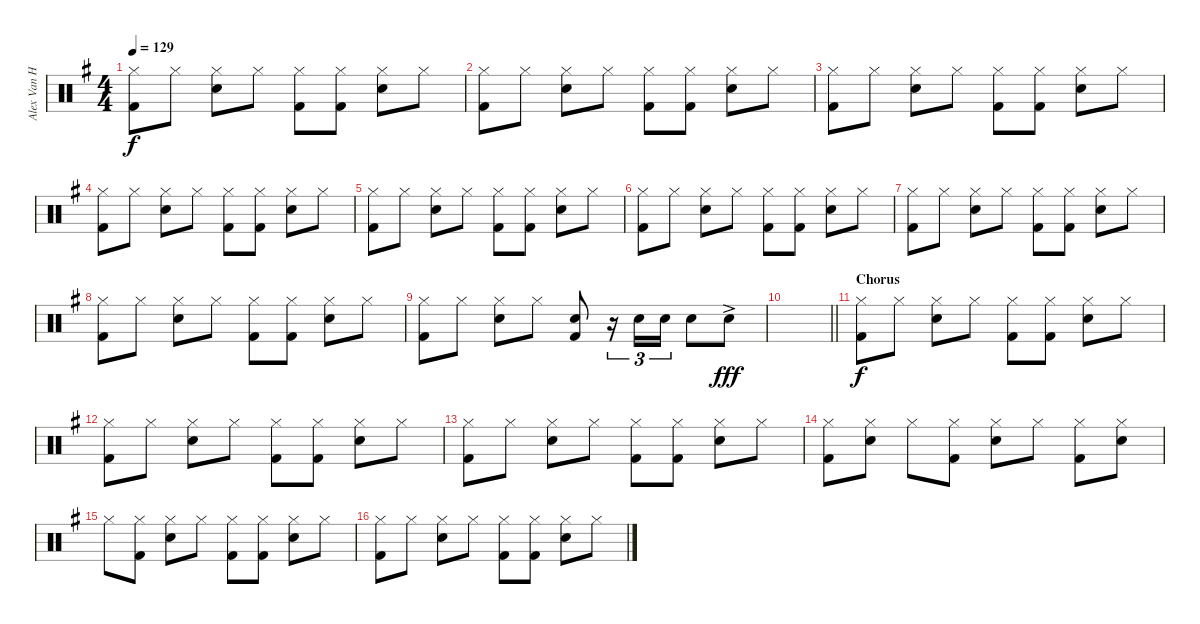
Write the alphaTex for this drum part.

\track ("Alex Van Halen" "Alex Van H") {instrument percussion}
\staff {score}
\articulation defaults
\ts (4 4)
\tempo 129
\clef neutral
\ks eminor
("Hi-Hat (closed)" "Kick (hit) 2").8{dy f} "Hi-Hat (closed)".8 ("Hi-Hat (closed)" "Snare (hit) 2").8 "Hi-Hat (closed)".8 ("Hi-Hat (closed)" "Kick (hit) 2").8 ("Hi-Hat (closed)" "Kick (hit) 2").8 ("Hi-Hat (closed)" "Snare (hit) 2").8 "Hi-Hat (closed)".8 |
("Hi-Hat (closed)" "Kick (hit) 2").8 "Hi-Hat (closed)".8 ("Hi-Hat (closed)" "Snare (hit) 2").8 "Hi-Hat (closed)".8 ("Hi-Hat (closed)" "Kick (hit) 2").8 ("Hi-Hat (closed)" "Kick (hit) 2").8 ("Hi-Hat (closed)" "Snare (hit) 2").8 "Hi-Hat (closed)".8 |
("Hi-Hat (closed)" "Kick (hit) 2").8 "Hi-Hat (closed)".8 ("Hi-Hat (closed)" "Snare (hit) 2").8 "Hi-Hat (closed)".8 ("Hi-Hat (closed)" "Kick (hit) 2").8 ("Hi-Hat (closed)" "Kick (hit) 2").8 ("Hi-Hat (closed)" "Snare (hit) 2").8 "Hi-Hat (closed)".8 |
("Hi-Hat (closed)" "Kick (hit) 2").8 "Hi-Hat (closed)".8 ("Hi-Hat (closed)" "Snare (hit) 2").8 "Hi-Hat (closed)".8 ("Hi-Hat (closed)" "Kick (hit) 2").8 ("Hi-Hat (closed)" "Kick (hit) 2").8 ("Hi-Hat (closed)" "Snare (hit) 2").8 "Hi-Hat (closed)".8 |
("Hi-Hat (closed)" "Kick (hit) 2").8 "Hi-Hat (closed)".8 ("Hi-Hat (closed)" "Snare (hit) 2").8 "Hi-Hat (closed)".8 ("Hi-Hat (closed)" "Kick (hit) 2").8 ("Hi-Hat (closed)" "Kick (hit) 2").8 ("Hi-Hat (closed)" "Snare (hit) 2").8 "Hi-Hat (closed)".8 |
("Hi-Hat (closed)" "Kick (hit) 2").8 "Hi-Hat (closed)".8 ("Hi-Hat (closed)" "Snare (hit) 2").8 "Hi-Hat (closed)".8 ("Hi-Hat (closed)" "Kick (hit) 2").8 ("Hi-Hat (closed)" "Kick (hit) 2").8 ("Hi-Hat (closed)" "Snare (hit) 2").8 "Hi-Hat (closed)".8 |
("Hi-Hat (closed)" "Kick (hit) 2").8 "Hi-Hat (closed)".8 ("Hi-Hat (closed)" "Snare (hit) 2").8 "Hi-Hat (closed)".8 ("Hi-Hat (closed)" "Kick (hit) 2").8 ("Hi-Hat (closed)" "Kick (hit) 2").8 ("Hi-Hat (closed)" "Snare (hit) 2").8 "Hi-Hat (closed)".8 |
("Hi-Hat (closed)" "Kick (hit) 2").8 "Hi-Hat (closed)".8 ("Hi-Hat (closed)" "Snare (hit) 2").8 "Hi-Hat (closed)".8 ("Hi-Hat (closed)" "Kick (hit) 2").8 ("Hi-Hat (closed)" "Kick (hit) 2").8 ("Hi-Hat (closed)" "Snare (hit) 2").8 "Hi-Hat (closed)".8 |
("Hi-Hat (closed)" "Kick (hit) 2").8 "Hi-Hat (closed)".8 ("Hi-Hat (closed)" "Snare (hit) 2").8 "Hi-Hat (closed)".8 ("Snare (hit) 2" "Kick (hit) 2").8 r.16{tu (3 2)} "Electric Snare (hit)".16{tu (3 2)} "Electric Snare (hit)".16{tu (3 2)} "Electric Snare (hit)".8 "Snare (hit) 2"{ac}.8{dy fff} |
\barLineRight lightlight
|
\section ("" "Chorus")
("Hi-Hat (closed)" "Kick (hit) 2").8{dy f} "Hi-Hat (closed)".8 ("Hi-Hat (closed)" "Snare (hit) 2").8 "Hi-Hat (closed)".8 ("Hi-Hat (closed)" "Kick (hit) 2").8 ("Hi-Hat (closed)" "Kick (hit) 2").8 ("Hi-Hat (closed)" "Snare (hit) 2").8 "Hi-Hat (closed)".8 |
("Hi-Hat (closed)" "Kick (hit) 2").8 "Hi-Hat (closed)".8 ("Hi-Hat (closed)" "Snare (hit) 2").8 "Hi-Hat (closed)".8 ("Hi-Hat (closed)" "Kick (hit) 2").8 ("Hi-Hat (closed)" "Kick (hit) 2").8 ("Hi-Hat (closed)" "Snare (hit) 2").8 "Hi-Hat (closed)".8 |
("Hi-Hat (closed)" "Kick (hit) 2").8 "Hi-Hat (closed)".8 ("Hi-Hat (closed)" "Snare (hit) 2").8 "Hi-Hat (closed)".8 ("Hi-Hat (closed)" "Kick (hit) 2").8 ("Hi-Hat (closed)" "Kick (hit) 2").8 ("Hi-Hat (closed)" "Snare (hit) 2").8 "Hi-Hat (closed)".8 |
("Hi-Hat (closed)" "Kick (hit) 2").8 ("Hi-Hat (closed)" "Snare (hit) 2").8 "Hi-Hat (closed)".8 ("Hi-Hat (closed)" "Kick (hit) 2").8 ("Hi-Hat (closed)" "Snare (hit) 2").8 "Hi-Hat (closed)".8 ("Hi-Hat (closed)" "Kick (hit) 2").8 ("Hi-Hat (closed)" "Snare (hit) 2").8 |
"Hi-Hat (closed)".8 ("Hi-Hat (closed)" "Kick (hit) 2").8 ("Hi-Hat (closed)" "Snare (hit) 2").8 "Hi-Hat (closed)".8 ("Hi-Hat (closed)" "Kick (hit) 2").8 ("Hi-Hat (closed)" "Kick (hit) 2").8 ("Hi-Hat (closed)" "Snare (hit) 2").8 "Hi-Hat (closed)".8 |
("Hi-Hat (closed)" "Kick (hit) 2").8 "Hi-Hat (closed)".8 ("Hi-Hat (closed)" "Snare (hit) 2").8 "Hi-Hat (closed)".8 ("Hi-Hat (closed)" "Kick (hit) 2").8 ("Hi-Hat (closed)" "Kick (hit) 2").8 ("Hi-Hat (closed)" "Snare (hit) 2").8 "Hi-Hat (closed)".8
